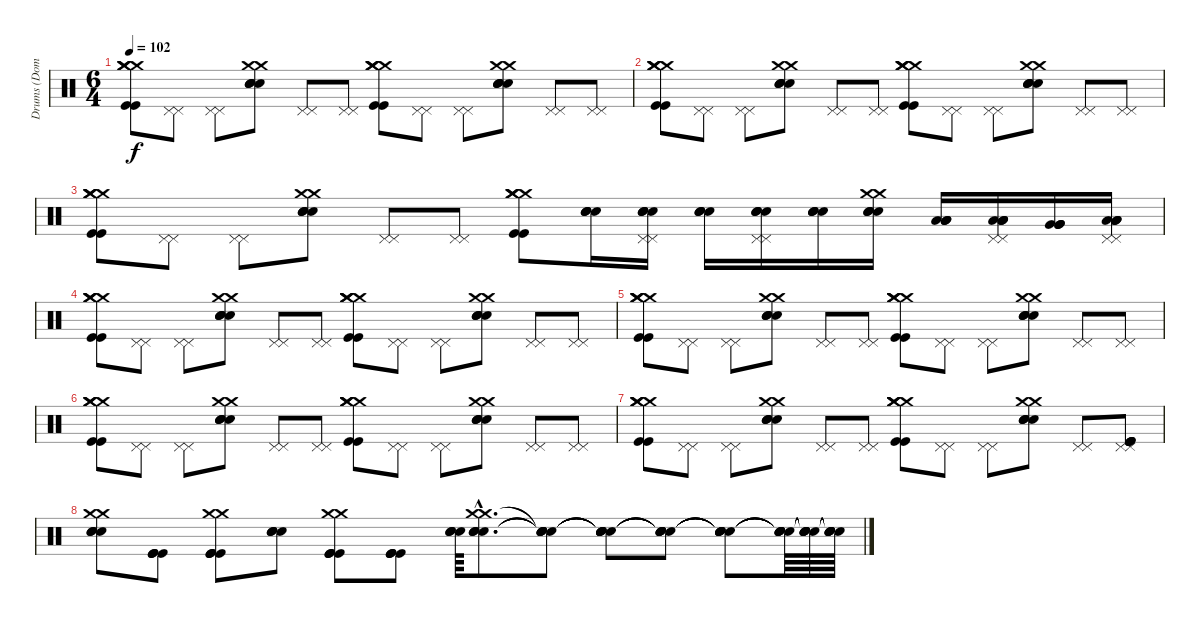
\track ("Drums (Dom)" "Drums (Dom") {instrument percussion}
\staff {score}
\articulation defaults
\ts (6 4)
\tempo 102
\clef neutral
\ks c
("Crash medium (hit)" "Crash medium (hit)" "Crash medium (hit)" "Crash medium (hit)" "Kick (hit)" "Kick (hit)").8{dy f} ("Pedal Hi-Hat (hit)" "Pedal Hi-Hat (hit)").8 ("Pedal Hi-Hat (hit)" "Pedal Hi-Hat (hit)").8 ("Crash medium (hit)" "Crash medium (hit)" "Electric Snare (hit)" "Electric Snare (hit)" "Electric Snare (hit)" "Electric Snare (hit)").8 ("Pedal Hi-Hat (hit)" "Pedal Hi-Hat (hit)").8 ("Pedal Hi-Hat (hit)" "Pedal Hi-Hat (hit)").8 ("Crash medium (hit)" "Crash medium (hit)" "Crash medium (hit)" "Crash medium (hit)" "Kick (hit)" "Kick (hit)").8 ("Pedal Hi-Hat (hit)" "Pedal Hi-Hat (hit)").8 ("Pedal Hi-Hat (hit)" "Pedal Hi-Hat (hit)").8 ("Crash medium (hit)" "Crash medium (hit)" "Electric Snare (hit)" "Electric Snare (hit)" "Electric Snare (hit)" "Electric Snare (hit)").8 ("Pedal Hi-Hat (hit)" "Pedal Hi-Hat (hit)").8 ("Pedal Hi-Hat (hit)" "Pedal Hi-Hat (hit)").8 |
("Crash medium (hit)" "Crash medium (hit)" "Crash medium (hit)" "Crash medium (hit)" "Kick (hit)" "Kick (hit)").8 ("Pedal Hi-Hat (hit)" "Pedal Hi-Hat (hit)").8 ("Pedal Hi-Hat (hit)" "Pedal Hi-Hat (hit)").8 ("Crash medium (hit)" "Crash medium (hit)" "Electric Snare (hit)" "Electric Snare (hit)" "Electric Snare (hit)" "Electric Snare (hit)").8 ("Pedal Hi-Hat (hit)" "Pedal Hi-Hat (hit)").8 ("Pedal Hi-Hat (hit)" "Pedal Hi-Hat (hit)").8 ("Crash medium (hit)" "Crash medium (hit)" "Crash medium (hit)" "Crash medium (hit)" "Kick (hit)" "Kick (hit)").8 ("Pedal Hi-Hat (hit)" "Pedal Hi-Hat (hit)").8 ("Pedal Hi-Hat (hit)" "Pedal Hi-Hat (hit)").8 ("Crash medium (hit)" "Crash medium (hit)" "Electric Snare (hit)" "Electric Snare (hit)" "Electric Snare (hit)" "Electric Snare (hit)").8 ("Pedal Hi-Hat (hit)" "Pedal Hi-Hat (hit)").8 ("Pedal Hi-Hat (hit)" "Pedal Hi-Hat (hit)").8 |
("Crash medium (hit)" "Crash medium (hit)" "Crash medium (hit)" "Crash medium (hit)" "Kick (hit)" "Kick (hit)").8 ("Pedal Hi-Hat (hit)" "Pedal Hi-Hat (hit)").8 ("Pedal Hi-Hat (hit)" "Pedal Hi-Hat (hit)").8 ("Crash medium (hit)" "Crash medium (hit)" "Electric Snare (hit)" "Electric Snare (hit)" "Electric Snare (hit)" "Electric Snare (hit)").8 ("Pedal Hi-Hat (hit)" "Pedal Hi-Hat (hit)").8 ("Pedal Hi-Hat (hit)" "Pedal Hi-Hat (hit)").8 ("Crash medium (hit)" "Crash medium (hit)" "Crash medium (hit)" "Crash medium (hit)" "Kick (hit)" "Kick (hit)").8 ("Electric Snare (hit)" "Electric Snare (hit)" "Electric Snare (hit)" "Electric Snare (hit)").16 ("Pedal Hi-Hat (hit)" "Pedal Hi-Hat (hit)" "Electric Snare (hit)" "Electric Snare (hit)" "Electric Snare (hit)" "Electric Snare (hit)").16 ("Electric Snare (hit)" "Electric Snare (hit)" "Electric Snare (hit)" "Electric Snare (hit)").16 ("Pedal Hi-Hat (hit)" "Pedal Hi-Hat (hit)" "Electric Snare (hit)" "Electric Snare (hit)" "Electric Snare (hit)" "Electric Snare (hit)").16 ("Electric Snare (hit)" "Electric Snare (hit)" "Electric Snare (hit)" "Electric Snare (hit)").16 ("Crash medium (hit)" "Crash medium (hit)" "Electric Snare (hit)" "Electric Snare (hit)" "Electric Snare (hit)" "Electric Snare (hit)").16 ("Low Tom (hit)" "Low Tom (hit)" "Low Tom (hit)" "Low Tom (hit)").16 ("Pedal Hi-Hat (hit)" "Pedal Hi-Hat (hit)" "Low Tom (hit)" "Low Tom (hit)" "Low Tom (hit)" "Low Tom (hit)").16 ("Very Low Tom (hit)" "Very Low Tom (hit)" "Very Low Tom (hit)" "Very Low Tom (hit)").16 ("Pedal Hi-Hat (hit)" "Pedal Hi-Hat (hit)" "Low Floor Tom (hit)" "Low Floor Tom (hit)" "Low Floor Tom (hit)" "Low Floor Tom (hit)").16 |
("Crash medium (hit)" "Crash medium (hit)" "Crash medium (hit)" "Crash medium (hit)" "Kick (hit)" "Kick (hit)").8 ("Pedal Hi-Hat (hit)" "Pedal Hi-Hat (hit)").8 ("Pedal Hi-Hat (hit)" "Pedal Hi-Hat (hit)").8 ("Crash medium (hit)" "Crash medium (hit)" "Electric Snare (hit)" "Electric Snare (hit)" "Electric Snare (hit)" "Electric Snare (hit)").8 ("Pedal Hi-Hat (hit)" "Pedal Hi-Hat (hit)").8 ("Pedal Hi-Hat (hit)" "Pedal Hi-Hat (hit)").8 ("Crash medium (hit)" "Crash medium (hit)" "Crash medium (hit)" "Crash medium (hit)" "Kick (hit)" "Kick (hit)").8 ("Pedal Hi-Hat (hit)" "Pedal Hi-Hat (hit)").8 ("Pedal Hi-Hat (hit)" "Pedal Hi-Hat (hit)").8 ("Crash medium (hit)" "Crash medium (hit)" "Electric Snare (hit)" "Electric Snare (hit)" "Electric Snare (hit)" "Electric Snare (hit)").8 ("Pedal Hi-Hat (hit)" "Pedal Hi-Hat (hit)").8 ("Pedal Hi-Hat (hit)" "Pedal Hi-Hat (hit)").8 |
("Crash medium (hit)" "Crash medium (hit)" "Crash medium (hit)" "Crash medium (hit)" "Kick (hit)" "Kick (hit)").8 ("Pedal Hi-Hat (hit)" "Pedal Hi-Hat (hit)").8 ("Pedal Hi-Hat (hit)" "Pedal Hi-Hat (hit)").8 ("Crash medium (hit)" "Crash medium (hit)" "Electric Snare (hit)" "Electric Snare (hit)" "Electric Snare (hit)" "Electric Snare (hit)").8 ("Pedal Hi-Hat (hit)" "Pedal Hi-Hat (hit)").8 ("Pedal Hi-Hat (hit)" "Pedal Hi-Hat (hit)").8 ("Crash medium (hit)" "Crash medium (hit)" "Crash medium (hit)" "Crash medium (hit)" "Kick (hit)" "Kick (hit)").8 ("Pedal Hi-Hat (hit)" "Pedal Hi-Hat (hit)").8 ("Pedal Hi-Hat (hit)" "Pedal Hi-Hat (hit)").8 ("Crash medium (hit)" "Crash medium (hit)" "Electric Snare (hit)" "Electric Snare (hit)" "Electric Snare (hit)" "Electric Snare (hit)").8 ("Pedal Hi-Hat (hit)" "Pedal Hi-Hat (hit)").8 ("Pedal Hi-Hat (hit)" "Pedal Hi-Hat (hit)").8 |
("Crash medium (hit)" "Crash medium (hit)" "Crash medium (hit)" "Crash medium (hit)" "Kick (hit)" "Kick (hit)").8 ("Pedal Hi-Hat (hit)" "Pedal Hi-Hat (hit)").8 ("Pedal Hi-Hat (hit)" "Pedal Hi-Hat (hit)").8 ("Crash medium (hit)" "Crash medium (hit)" "Electric Snare (hit)" "Electric Snare (hit)" "Electric Snare (hit)" "Electric Snare (hit)").8 ("Pedal Hi-Hat (hit)" "Pedal Hi-Hat (hit)").8 ("Pedal Hi-Hat (hit)" "Pedal Hi-Hat (hit)").8 ("Crash medium (hit)" "Crash medium (hit)" "Crash medium (hit)" "Crash medium (hit)" "Kick (hit)" "Kick (hit)").8 ("Pedal Hi-Hat (hit)" "Pedal Hi-Hat (hit)").8 ("Pedal Hi-Hat (hit)" "Pedal Hi-Hat (hit)").8 ("Crash medium (hit)" "Crash medium (hit)" "Electric Snare (hit)" "Electric Snare (hit)" "Electric Snare (hit)" "Electric Snare (hit)").8 ("Pedal Hi-Hat (hit)" "Pedal Hi-Hat (hit)").8 ("Pedal Hi-Hat (hit)" "Pedal Hi-Hat (hit)").8 |
("Crash medium (hit)" "Crash medium (hit)" "Crash medium (hit)" "Crash medium (hit)" "Kick (hit)" "Kick (hit)").8 ("Pedal Hi-Hat (hit)" "Pedal Hi-Hat (hit)").8 ("Pedal Hi-Hat (hit)" "Pedal Hi-Hat (hit)").8 ("Crash medium (hit)" "Crash medium (hit)" "Electric Snare (hit)" "Electric Snare (hit)" "Electric Snare (hit)" "Electric Snare (hit)").8 ("Pedal Hi-Hat (hit)" "Pedal Hi-Hat (hit)").8 ("Pedal Hi-Hat (hit)" "Pedal Hi-Hat (hit)").8 ("Crash medium (hit)" "Crash medium (hit)" "Crash medium (hit)" "Crash medium (hit)" "Kick (hit)" "Kick (hit)").8 ("Pedal Hi-Hat (hit)" "Pedal Hi-Hat (hit)").8 ("Pedal Hi-Hat (hit)" "Pedal Hi-Hat (hit)").8 ("Crash medium (hit)" "Crash medium (hit)" "Electric Snare (hit)" "Electric Snare (hit)" "Electric Snare (hit)" "Electric Snare (hit)").8 ("Pedal Hi-Hat (hit)" "Pedal Hi-Hat (hit)").8 ("Pedal Hi-Hat (hit)" "Pedal Hi-Hat (hit)" "Kick (hit)" "Kick (hit)" "Kick (hit)" "Kick (hit)").8 |
("Crash medium (hit)" "Crash medium (hit)" "Electric Snare (hit)" "Electric Snare (hit)" "Electric Snare (hit)" "Electric Snare (hit)").8 ("Kick (hit)" "Kick (hit)" "Kick (hit)" "Kick (hit)").8 ("Crash medium (hit)" "Crash medium (hit)" "Kick (hit)" "Kick (hit)" "Kick (hit)" "Kick (hit)").8 ("Electric Snare (hit)" "Electric Snare (hit)" "Electric Snare (hit)" "Electric Snare (hit)").8 ("Crash medium (hit)" "Crash medium (hit)" "Kick (hit)" "Kick (hit)" "Kick (hit)" "Kick (hit)").8 ("Kick (hit)" "Kick (hit)" "Kick (hit)" "Kick (hit)").8 ("Electric Snare (hit)" "Electric Snare (hit)" "Electric Snare (hit)" "Electric Snare (hit)").64 ("Crash medium (hit)"{hac} "Crash medium (hit)"{hac} "Electric Snare (hit)"{hac} "Electric Snare (hit)"{hac} "Electric Snare (hit)"{hac} "Electric Snare (hit)"{hac}).8{d} ("Snare (hit)"{t} "Snare (hit)"{t} "Snare (hit)"{t} "Snare (hit)"{t} "Snare (hit)"{t} "Snare (hit)"{t}).8 ("Snare (hit)"{t} "Snare (hit)"{t} "Snare (hit)"{t} "Snare (hit)"{t} "Snare (hit)"{t} "Snare (hit)"{t}).8 ("Snare (hit)"{t} "Snare (hit)"{t} "Snare (hit)"{t} "Snare (hit)"{t} "Snare (hit)"{t} "Snare (hit)"{t}).8 ("Snare (hit)"{t} "Snare (hit)"{t} "Snare (hit)"{t} "Snare (hit)"{t} "Snare (hit)"{t} "Snare (hit)"{t}).8 ("Snare (hit)"{t} "Snare (hit)"{t} "Snare (hit)"{t} "Snare (hit)"{t} "Snare (hit)"{t} "Snare (hit)"{t}).64 ("Snare (hit)"{t} "Snare (hit)"{t} "Snare (hit)"{t} "Snare (hit)"{t} "Snare (hit)"{t} "Snare (hit)"{t}).64 ("Snare (hit)"{t} "Snare (hit)"{t} "Snare (hit)"{t} "Snare (hit)"{t} "Snare (hit)"{t} "Snare (hit)"{t}).64
